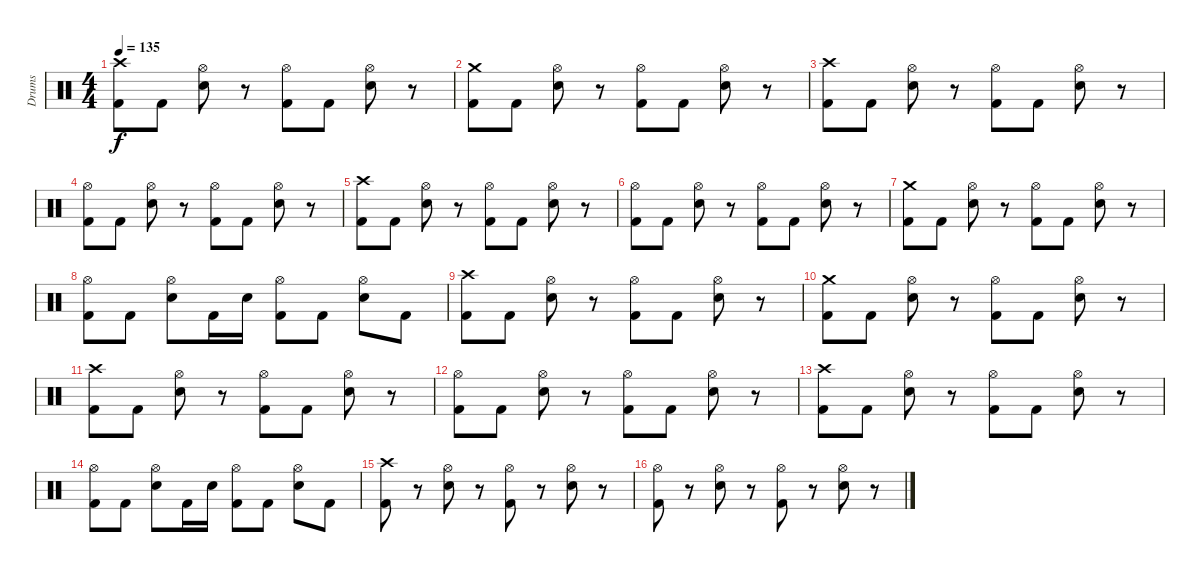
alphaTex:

\track ("Drums" "Drums") {instrument percussion}
\staff {score}
\articulation defaults
\ts (4 4)
\tempo 135
\clef neutral
\ks c
("Crash high (hit)" "Kick (hit) 2").8{dy f} "Kick (hit) 2".8 ("Hi-Hat (open)" "Electric Snare (hit)").8 r.8 ("Hi-Hat (open)" "Kick (hit) 2").8 "Kick (hit) 2".8 ("Hi-Hat (open)" "Electric Snare (hit)").8 r.8 |
("Crash medium (hit)" "Kick (hit) 2").8 "Kick (hit) 2".8 ("Hi-Hat (open)" "Electric Snare (hit)").8 r.8 ("Hi-Hat (open)" "Kick (hit) 2").8 "Kick (hit) 2".8 ("Hi-Hat (open)" "Electric Snare (hit)").8 r.8 |
("Crash high (hit)" "Kick (hit) 2").8 "Kick (hit) 2".8 ("Hi-Hat (open)" "Electric Snare (hit)").8 r.8 ("Hi-Hat (open)" "Kick (hit) 2").8 "Kick (hit) 2".8 ("Hi-Hat (open)" "Electric Snare (hit)").8 r.8 |
("Hi-Hat (open)" "Kick (hit) 2").8 "Kick (hit) 2".8 ("Hi-Hat (open)" "Electric Snare (hit)").8 r.8 ("Hi-Hat (open)" "Kick (hit) 2").8 "Kick (hit) 2".8 ("Hi-Hat (open)" "Electric Snare (hit)").8 r.8 |
("Crash high (hit)" "Kick (hit) 2").8 "Kick (hit) 2".8 ("Hi-Hat (open)" "Electric Snare (hit)").8 r.8 ("Hi-Hat (open)" "Kick (hit) 2").8 "Kick (hit) 2".8 ("Hi-Hat (open)" "Electric Snare (hit)").8 r.8 |
("Hi-Hat (open)" "Kick (hit) 2").8 "Kick (hit) 2".8 ("Hi-Hat (open)" "Electric Snare (hit)").8 r.8 ("Hi-Hat (open)" "Kick (hit) 2").8 "Kick (hit) 2".8 ("Hi-Hat (open)" "Electric Snare (hit)").8 r.8 |
("Crash medium (hit)" "Kick (hit) 2").8 "Kick (hit) 2".8 ("Hi-Hat (open)" "Electric Snare (hit)").8 r.8 ("Hi-Hat (open)" "Kick (hit) 2").8 "Kick (hit) 2".8 ("Hi-Hat (open)" "Electric Snare (hit)").8 r.8 |
("Hi-Hat (open)" "Kick (hit) 2").8 "Kick (hit) 2".8 ("Hi-Hat (open)" "Electric Snare (hit)").8 "Kick (hit) 2".16 "Electric Snare (hit)".16 ("Hi-Hat (open)" "Kick (hit) 2").8 "Kick (hit) 2".8 ("Hi-Hat (open)" "Electric Snare (hit)").8 "Kick (hit) 2".8 |
("Crash high (hit)" "Kick (hit) 2").8 "Kick (hit) 2".8 ("Hi-Hat (open)" "Electric Snare (hit)").8 r.8 ("Hi-Hat (open)" "Kick (hit) 2").8 "Kick (hit) 2".8 ("Hi-Hat (open)" "Electric Snare (hit)").8 r.8 |
("Crash medium (hit)" "Kick (hit) 2").8 "Kick (hit) 2".8 ("Hi-Hat (open)" "Electric Snare (hit)").8 r.8 ("Hi-Hat (open)" "Kick (hit) 2").8 "Kick (hit) 2".8 ("Hi-Hat (open)" "Electric Snare (hit)").8 r.8 |
("Crash high (hit)" "Kick (hit) 2").8 "Kick (hit) 2".8 ("Hi-Hat (open)" "Electric Snare (hit)").8 r.8 ("Hi-Hat (open)" "Kick (hit) 2").8 "Kick (hit) 2".8 ("Hi-Hat (open)" "Electric Snare (hit)").8 r.8 |
("Hi-Hat (open)" "Kick (hit) 2").8 "Kick (hit) 2".8 ("Hi-Hat (open)" "Electric Snare (hit)").8 r.8 ("Hi-Hat (open)" "Kick (hit) 2").8 "Kick (hit) 2".8 ("Hi-Hat (open)" "Electric Snare (hit)").8 r.8 |
("Crash high (hit)" "Kick (hit) 2").8 "Kick (hit) 2".8 ("Hi-Hat (open)" "Electric Snare (hit)").8 r.8 ("Hi-Hat (open)" "Kick (hit) 2").8 "Kick (hit) 2".8 ("Hi-Hat (open)" "Electric Snare (hit)").8 r.8 |
("Hi-Hat (open)" "Kick (hit) 2").8 "Kick (hit) 2".8 ("Hi-Hat (open)" "Electric Snare (hit)").8 "Kick (hit) 2".16 "Electric Snare (hit)".16 ("Hi-Hat (open)" "Kick (hit) 2").8 "Kick (hit) 2".8 ("Hi-Hat (open)" "Electric Snare (hit)").8 "Kick (hit) 2".8 |
("Crash high (hit)" "Kick (hit) 2").8 r.8 ("Hi-Hat (open)" "Electric Snare (hit)").8 r.8 ("Hi-Hat (open)" "Kick (hit) 2").8 r.8 ("Hi-Hat (open)" "Electric Snare (hit)").8 r.8 |
("Hi-Hat (open)" "Kick (hit) 2").8 r.8 ("Hi-Hat (open)" "Electric Snare (hit)").8 r.8 ("Hi-Hat (open)" "Kick (hit) 2").8 r.8 ("Hi-Hat (open)" "Electric Snare (hit)").8 r.8
